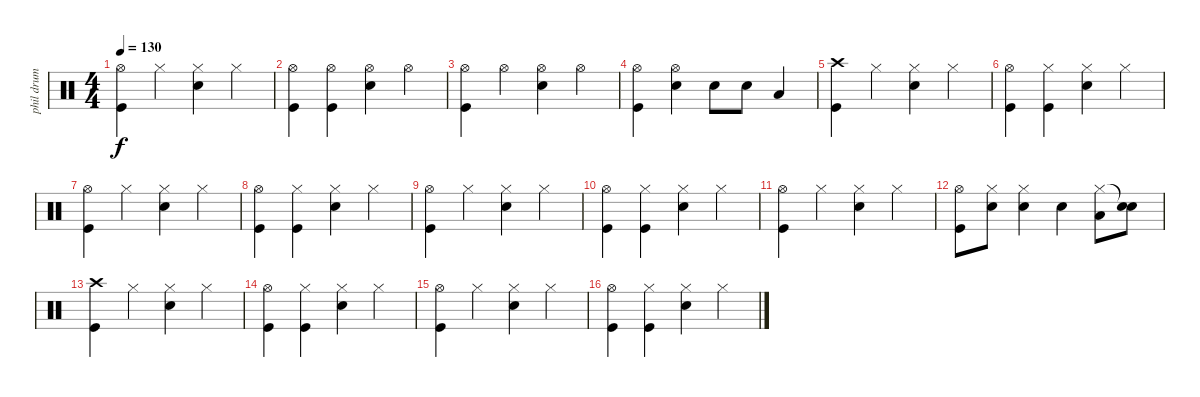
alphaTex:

\track ("phil drum" "phil drum") {instrument percussion}
\staff {score}
\articulation defaults
\ts (4 4)
\tempo 130
\clef neutral
\ks c
("Hi-Hat (open)" "Kick (hit)").4{dy f} "Hi-Hat (closed)".4 ("Hi-Hat (closed)" "Snare (hit) 2").4 "Hi-Hat (closed)".4 |
("Hi-Hat (open)" "Kick (hit)").4 ("Hi-Hat (open)" "Kick (hit)").4 ("Hi-Hat (open)" "Snare (hit) 2").4 "Hi-Hat (open)".4 |
("Hi-Hat (open)" "Kick (hit)").4 "Hi-Hat (open)".4 ("Hi-Hat (open)" "Snare (hit) 2").4 "Hi-Hat (open)".4 |
("Hi-Hat (open)" "Kick (hit)").4 ("Hi-Hat (open)" "Snare (hit) 2").4 "Snare (hit) 2".8 "Snare (hit) 2".8 "Low Tom (hit)".4 |
("Crash high (hit)" "Kick (hit)").4 "Hi-Hat (closed)".4 ("Hi-Hat (closed)" "Snare (hit) 2").4 "Hi-Hat (closed)".4 |
("Hi-Hat (open)" "Kick (hit)").4 ("Hi-Hat (closed)" "Kick (hit)").4 ("Hi-Hat (closed)" "Snare (hit) 2").4 "Hi-Hat (closed)".4 |
("Hi-Hat (open)" "Kick (hit)").4 "Hi-Hat (closed)".4 ("Hi-Hat (closed)" "Snare (hit) 2").4 "Hi-Hat (closed)".4 |
("Hi-Hat (open)" "Kick (hit)").4 ("Hi-Hat (closed)" "Kick (hit)").4 ("Hi-Hat (closed)" "Snare (hit) 2").4 "Hi-Hat (closed)".4 |
("Hi-Hat (open)" "Kick (hit)").4 "Hi-Hat (closed)".4 ("Hi-Hat (closed)" "Snare (hit) 2").4 "Hi-Hat (closed)".4 |
("Hi-Hat (open)" "Kick (hit)").4 ("Hi-Hat (closed)" "Kick (hit)").4 ("Hi-Hat (closed)" "Snare (hit) 2").4 "Hi-Hat (closed)".4 |
("Hi-Hat (open)" "Kick (hit)").4 "Hi-Hat (closed)".4 ("Hi-Hat (closed)" "Snare (hit) 2").4 "Hi-Hat (closed)".4 |
("Hi-Hat (open)" "Kick (hit)").8 ("Hi-Hat (closed)" "Snare (hit) 2").8 ("Hi-Hat (closed)" "Snare (hit) 2").4 "Snare (hit) 2".4 ("Hi-Hat (closed)" "Low Tom (hit)").8 ("Snare (hit)"{t} "Snare (hit) 2").8 |
("Crash high (hit)" "Kick (hit)").4 "Hi-Hat (closed)".4 ("Hi-Hat (closed)" "Snare (hit) 2").4 "Hi-Hat (closed)".4 |
("Hi-Hat (open)" "Kick (hit)").4 ("Hi-Hat (closed)" "Kick (hit)").4 ("Hi-Hat (closed)" "Snare (hit) 2").4 "Hi-Hat (closed)".4 |
("Hi-Hat (open)" "Kick (hit)").4 "Hi-Hat (closed)".4 ("Hi-Hat (closed)" "Snare (hit) 2").4 "Hi-Hat (closed)".4 |
("Hi-Hat (open)" "Kick (hit)").4 ("Hi-Hat (closed)" "Kick (hit)").4 ("Hi-Hat (closed)" "Snare (hit) 2").4 "Hi-Hat (closed)".4
